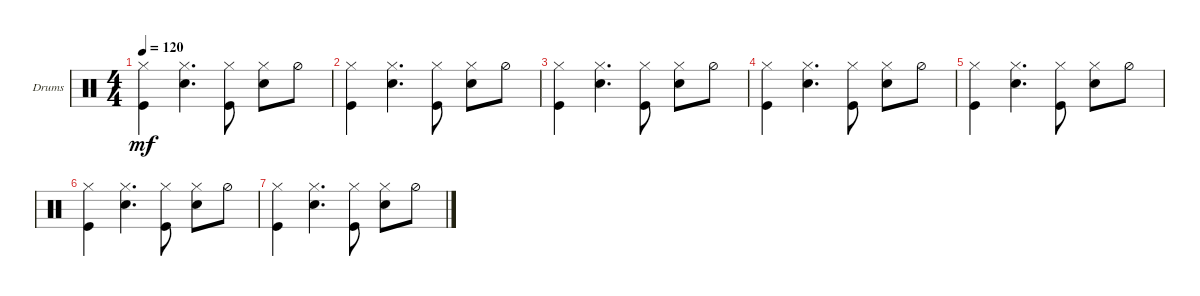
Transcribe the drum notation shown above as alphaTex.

\defaultSystemsLayout 4
\bracketExtendMode groupsimilarinstruments
\firstSystemTrackNameOrientation horizontal
\otherSystemsTrackNameOrientation horizontal
\track ("Drumkit" "Drums") {instrument percussion}
\staff {score}
\articulation defaults
\ts (4 4)
\tempo 120
\clef neutral
\ks c
("Kick (hit)" "Hi-Hat (closed)").4{dy mf} ("Snare (hit) 2" "Hi-Hat (closed)").4{d} ("Kick (hit)" "Hi-Hat (closed)").8 ("Snare (hit) 2" "Hi-Hat (closed)").8 "Hi-Hat (half)".8 |
("Kick (hit)" "Hi-Hat (closed)").4 ("Snare (hit) 2" "Hi-Hat (closed)").4{d} ("Kick (hit)" "Hi-Hat (closed)").8 ("Snare (hit) 2" "Hi-Hat (closed)").8 "Hi-Hat (half)".8 |
("Kick (hit)" "Hi-Hat (closed)").4 ("Snare (hit) 2" "Hi-Hat (closed)").4{d} ("Kick (hit)" "Hi-Hat (closed)").8 ("Snare (hit) 2" "Hi-Hat (closed)").8 "Hi-Hat (half)".8 |
("Kick (hit)" "Hi-Hat (closed)").4 ("Snare (hit) 2" "Hi-Hat (closed)").4{d} ("Kick (hit)" "Hi-Hat (closed)").8 ("Snare (hit) 2" "Hi-Hat (closed)").8 "Hi-Hat (half)".8 |
("Kick (hit)" "Hi-Hat (closed)").4 ("Snare (hit) 2" "Hi-Hat (closed)").4{d} ("Kick (hit)" "Hi-Hat (closed)").8 ("Snare (hit) 2" "Hi-Hat (closed)").8 "Hi-Hat (half)".8 |
("Kick (hit)" "Hi-Hat (closed)").4 ("Snare (hit) 2" "Hi-Hat (closed)").4{d} ("Kick (hit)" "Hi-Hat (closed)").8 ("Snare (hit) 2" "Hi-Hat (closed)").8 "Hi-Hat (half)".8 |
("Kick (hit)" "Hi-Hat (closed)").4 ("Snare (hit) 2" "Hi-Hat (closed)").4{d} ("Kick (hit)" "Hi-Hat (closed)").8 ("Snare (hit) 2" "Hi-Hat (closed)").8 "Hi-Hat (half)".8
